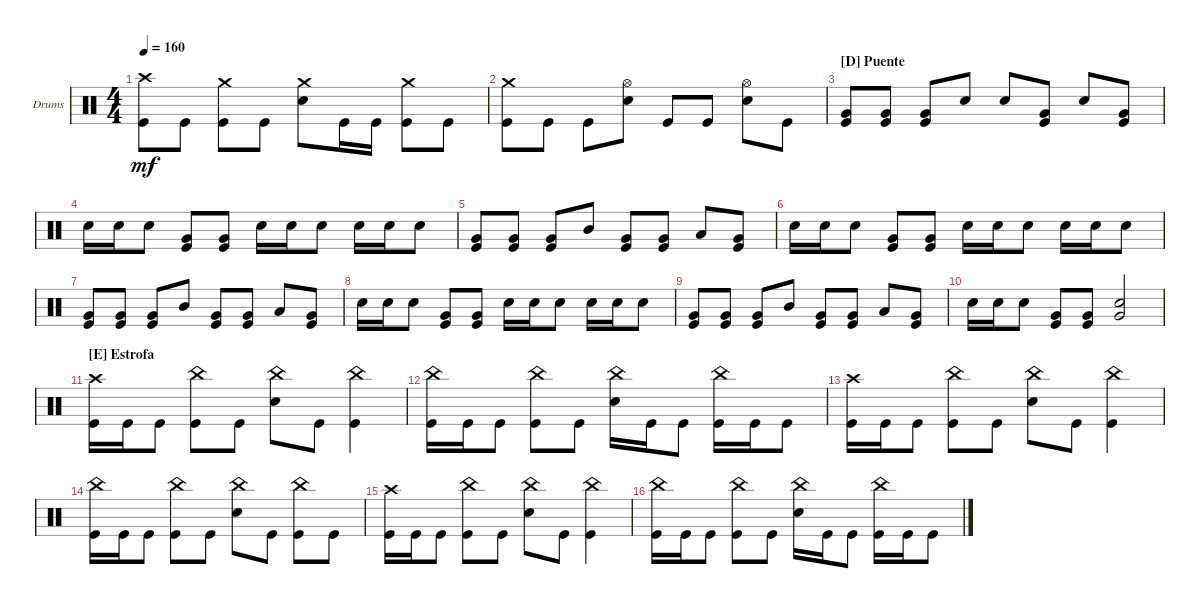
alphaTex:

\bracketExtendMode groupsimilarinstruments
\firstSystemTrackNameOrientation horizontal
\otherSystemsTrackNameOrientation horizontal
\track ("Nick Augusto" "Drums") {instrument percussion}
\staff {score}
\articulation defaults
\ts (4 4)
\tempo 160
\clef neutral
\ks c
("Kick (hit)" "Crash high (hit)").8{dy mf} "Kick (hit)".8 ("Crash medium (hit)" "Kick (hit)").8 "Kick (hit)".8 ("Crash medium (hit)" "Snare (hit) 2").8 "Kick (hit)".16 "Kick (hit)".16 ("Crash medium (hit)" "Kick (hit)").8 "Kick (hit)".8 |
("Kick (hit)" "Crash medium (hit)").8 "Kick (hit)".8 "Kick (hit)".8 ("Snare (hit) 2" "Hi-Hat (open)").8 "Kick (hit)".8 "Kick (hit)".8 ("Snare (hit) 2" "Hi-Hat (open)").8 "Kick (hit)".8 |
\section ("D" "Puente")
("Kick (hit)" "Very Low Tom (hit)").8 ("Kick (hit)" "Very Low Tom (hit)").8 ("Kick (hit)" "Very Low Tom (hit)").8 "Snare (hit) 2".8 "Snare (hit) 2".8 ("Kick (hit)" "Very Low Tom (hit)").8 "Snare (hit) 2".8 ("Kick (hit)" "Very Low Tom (hit)").8 |
"Snare (hit) 2".16 "Snare (hit) 2".16 "Snare (hit) 2".8 ("Very Low Tom (hit)" "Kick (hit)").8 ("Very Low Tom (hit)" "Kick (hit)").8 "Snare (hit) 2".16 "Snare (hit) 2".16 "Snare (hit) 2".8 "Snare (hit) 2".16 "Snare (hit) 2".16 "Snare (hit) 2".8 |
("Kick (hit)" "Very Low Tom (hit)").8 ("Kick (hit)" "Very Low Tom (hit)").8 ("Kick (hit)" "Very Low Tom (hit)").8 "Mid Tom (hit)".8 ("Kick (hit)" "Very Low Tom (hit)").8 ("Kick (hit)" "Very Low Tom (hit)").8 "Low Tom (hit)".8 ("Kick (hit)" "Very Low Tom (hit)").8 |
"Snare (hit) 2".16 "Snare (hit) 2".16 "Snare (hit) 2".8 ("Very Low Tom (hit)" "Kick (hit)").8 ("Very Low Tom (hit)" "Kick (hit)").8 "Snare (hit) 2".16 "Snare (hit) 2".16 "Snare (hit) 2".8 "Snare (hit) 2".16 "Snare (hit) 2".16 "Snare (hit) 2".8 |
("Kick (hit)" "Very Low Tom (hit)").8 ("Kick (hit)" "Very Low Tom (hit)").8 ("Kick (hit)" "Very Low Tom (hit)").8 "Mid Tom (hit)".8 ("Kick (hit)" "Very Low Tom (hit)").8 ("Kick (hit)" "Very Low Tom (hit)").8 "Low Tom (hit)".8 ("Kick (hit)" "Very Low Tom (hit)").8 |
"Snare (hit) 2".16 "Snare (hit) 2".16 "Snare (hit) 2".8 ("Very Low Tom (hit)" "Kick (hit)").8 ("Very Low Tom (hit)" "Kick (hit)").8 "Snare (hit) 2".16 "Snare (hit) 2".16 "Snare (hit) 2".8 "Snare (hit) 2".16 "Snare (hit) 2".16 "Snare (hit) 2".8 |
("Kick (hit)" "Very Low Tom (hit)").8 ("Kick (hit)" "Very Low Tom (hit)").8 ("Kick (hit)" "Very Low Tom (hit)").8 "Mid Tom (hit)".8 ("Kick (hit)" "Very Low Tom (hit)").8 ("Kick (hit)" "Very Low Tom (hit)").8 "Low Tom (hit)".8 ("Kick (hit)" "Very Low Tom (hit)").8 |
"Snare (hit) 2".16 "Snare (hit) 2".16 "Snare (hit) 2".8 ("Very Low Tom (hit)" "Kick (hit)").8 ("Very Low Tom (hit)" "Kick (hit)").8 ("Snare (hit) 2" "Very Low Tom (hit)").2 |
\section ("E" "Estrofa")
("Kick (hit)" "Crash high (hit)").16 "Kick (hit)".16 "Kick (hit)".8 ("Kick (hit)" "China (hit)").8 "Kick (hit)".8 ("Snare (hit) 2" "China (hit)").8 "Kick (hit)".8 ("Kick (hit)" "China (hit)").4 |
("Kick (hit)" "China (hit)").16 "Kick (hit)".16 "Kick (hit)".8 ("Kick (hit)" "China (hit)").8 "Kick (hit)".8 ("China (hit)" "Snare (hit) 2").16 "Kick (hit)".16 "Kick (hit)".8 ("Kick (hit)" "China (hit)").16 "Kick (hit)".16 "Kick (hit)".8 |
("Kick (hit)" "Crash high (hit)").16 "Kick (hit)".16 "Kick (hit)".8 ("Kick (hit)" "China (hit)").8 "Kick (hit)".8 ("Snare (hit) 2" "China (hit)").8 "Kick (hit)".8 ("Kick (hit)" "China (hit)").4 |
("Kick (hit)" "China (hit)").16 "Kick (hit)".16 "Kick (hit)".8 ("Kick (hit)" "China (hit)").8 "Kick (hit)".8 ("Snare (hit) 2" "China (hit)").8 "Kick (hit)".8 ("Kick (hit)" "China (hit)").8 "Kick (hit)".8 |
("Kick (hit)" "Crash high (hit)").16 "Kick (hit)".16 "Kick (hit)".8 ("Kick (hit)" "China (hit)").8 "Kick (hit)".8 ("Snare (hit) 2" "China (hit)").8 "Kick (hit)".8 ("Kick (hit)" "China (hit)").4 |
("Kick (hit)" "China (hit)").16 "Kick (hit)".16 "Kick (hit)".8 ("Kick (hit)" "China (hit)").8 "Kick (hit)".8 ("China (hit)" "Snare (hit) 2").16 "Kick (hit)".16 "Kick (hit)".8 ("Kick (hit)" "China (hit)").16 "Kick (hit)".16 "Kick (hit)".8
